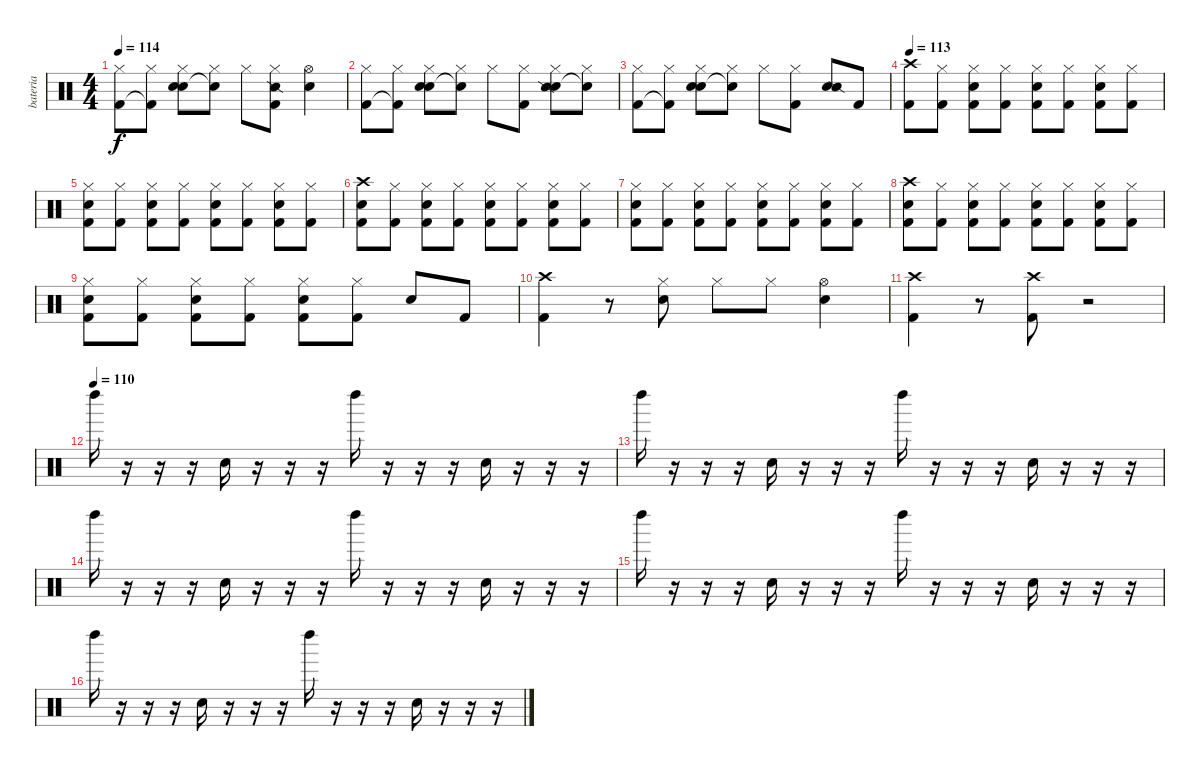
\track ("bateria" "bateria") {instrument percussion}
\staff {score}
\articulation defaults
\ts (4 4)
\tempo 114
\clef neutral
\ks c
("Hi-Hat (closed)" "Kick (hit) 2").8{dy f} ("Hi-Hat (closed)" "Kick (hit) 2"{t}).8 ("Hi-Hat (closed)" "Snare (hit) 2" "Hand Clap (hit)").8 ("Hi-Hat (closed)" "Snare (hit) 2"{t}).8 "Hi-Hat (closed)".8 ("Hi-Hat (closed)" "Kick (hit) 2" "Snare (side stick) 2").8 ("Hi-Hat (open)" "Snare (hit) 2").4 |
("Hi-Hat (closed)" "Kick (hit) 2").8 ("Hi-Hat (closed)" "Kick (hit) 2"{t}).8 ("Hi-Hat (closed)" "Snare (hit) 2" "Hand Clap (hit)").8 ("Hi-Hat (closed)" "Snare (hit) 2"{t}).8 "Hi-Hat (closed)".8 ("Hi-Hat (closed)" "Kick (hit) 2").8 ("Hi-Hat (closed)" "Snare (hit) 2" "Snare (side stick) 2").8 ("Hi-Hat (closed)" "Snare (hit) 2"{t}).8 |
("Hi-Hat (closed)" "Kick (hit) 2").8 ("Hi-Hat (closed)" "Kick (hit) 2"{t}).8 ("Hi-Hat (closed)" "Snare (hit) 2" "Hand Clap (hit)").8 ("Hi-Hat (closed)" "Snare (hit) 2"{t}).8 "Hi-Hat (closed)".8 ("Hi-Hat (closed)" "Kick (hit) 2").8 ("Snare (hit) 2" "Snare (side stick) 2").8 "Kick (hit) 2".8 |
\tempo 113
("Crash high (hit)" "Kick (hit) 2").8 ("Hi-Hat (closed)" "Kick (hit) 2").8 ("Hi-Hat (closed)" "Snare (hit) 2" "Kick (hit) 2").8 ("Hi-Hat (closed)" "Kick (hit) 2").8 ("Hi-Hat (closed)" "Snare (hit) 2" "Kick (hit) 2").8 ("Hi-Hat (closed)" "Kick (hit) 2").8 ("Hi-Hat (closed)" "Snare (hit) 2" "Kick (hit) 2").8 ("Hi-Hat (closed)" "Kick (hit) 2").8 |
("Hi-Hat (closed)" "Snare (hit) 2" "Kick (hit) 2").8 ("Hi-Hat (closed)" "Kick (hit) 2").8 ("Hi-Hat (closed)" "Snare (hit) 2" "Kick (hit) 2").8 ("Hi-Hat (closed)" "Kick (hit) 2").8 ("Hi-Hat (closed)" "Snare (hit) 2" "Kick (hit) 2").8 ("Hi-Hat (closed)" "Kick (hit) 2").8 ("Hi-Hat (closed)" "Snare (hit) 2" "Kick (hit) 2").8 ("Hi-Hat (closed)" "Kick (hit) 2").8 |
("Crash high (hit)" "Snare (hit) 2" "Kick (hit) 2").8 ("Hi-Hat (closed)" "Kick (hit) 2").8 ("Hi-Hat (closed)" "Snare (hit) 2" "Kick (hit) 2").8 ("Hi-Hat (closed)" "Kick (hit) 2").8 ("Hi-Hat (closed)" "Snare (hit) 2" "Kick (hit) 2").8 ("Hi-Hat (closed)" "Kick (hit) 2").8 ("Hi-Hat (closed)" "Snare (hit) 2" "Kick (hit) 2").8 ("Hi-Hat (closed)" "Kick (hit) 2").8 |
("Hi-Hat (closed)" "Snare (hit) 2" "Kick (hit) 2").8 ("Hi-Hat (closed)" "Kick (hit) 2").8 ("Hi-Hat (closed)" "Snare (hit) 2" "Kick (hit) 2").8 ("Hi-Hat (closed)" "Kick (hit) 2").8 ("Hi-Hat (closed)" "Snare (hit) 2" "Kick (hit) 2").8 ("Hi-Hat (closed)" "Kick (hit) 2").8 ("Hi-Hat (closed)" "Snare (hit) 2" "Kick (hit) 2").8 ("Hi-Hat (closed)" "Kick (hit) 2").8 |
("Crash high (hit)" "Snare (hit) 2" "Kick (hit) 2").8 ("Hi-Hat (closed)" "Kick (hit) 2").8 ("Hi-Hat (closed)" "Snare (hit) 2" "Kick (hit) 2").8 ("Hi-Hat (closed)" "Kick (hit) 2").8 ("Hi-Hat (closed)" "Snare (hit) 2" "Kick (hit) 2").8 ("Hi-Hat (closed)" "Kick (hit) 2").8 ("Hi-Hat (closed)" "Snare (hit) 2" "Kick (hit) 2").8 ("Hi-Hat (closed)" "Kick (hit) 2").8 |
("Hi-Hat (closed)" "Snare (hit) 2" "Kick (hit) 2").8 ("Hi-Hat (closed)" "Kick (hit) 2").8 ("Hi-Hat (closed)" "Snare (hit) 2" "Kick (hit) 2").8 ("Hi-Hat (closed)" "Kick (hit) 2").8 ("Hi-Hat (closed)" "Snare (hit) 2" "Kick (hit) 2").8 ("Hi-Hat (closed)" "Kick (hit) 2").8 "Snare (hit) 2".8 "Kick (hit) 2".8 |
("Crash high (hit)" "Kick (hit) 2").4 r.8 ("Hi-Hat (closed)" "Snare (hit) 2").8 "Hi-Hat (closed)".8 "Hi-Hat (closed)".8 ("Hi-Hat (open)" "Snare (hit) 2").4 |
("Crash high (hit)" "Kick (hit) 2").4 r.8 ("Crash high (hit)" "Kick (hit) 2").8 r.2 |
\tempo (110)
"Left Maraca (hit)".16 r.16 r.16 r.16 "Hand Clap (hit)".16 r.16 r.16 r.16 "Left Maraca (hit)".16 r.16 r.16 r.16 "Hand Clap (hit)".16 r.16 r.16 r.16 |
"Left Maraca (hit)".16 r.16 r.16 r.16 "Hand Clap (hit)".16 r.16 r.16 r.16 "Left Maraca (hit)".16 r.16 r.16 r.16 "Hand Clap (hit)".16 r.16 r.16 r.16 |
"Left Maraca (hit)".16 r.16 r.16 r.16 "Hand Clap (hit)".16 r.16 r.16 r.16 "Left Maraca (hit)".16 r.16 r.16 r.16 "Hand Clap (hit)".16 r.16 r.16 r.16 |
"Left Maraca (hit)".16 r.16 r.16 r.16 "Hand Clap (hit)".16 r.16 r.16 r.16 "Left Maraca (hit)".16 r.16 r.16 r.16 "Hand Clap (hit)".16 r.16 r.16 r.16 |
"Left Maraca (hit)".16 r.16 r.16 r.16 "Hand Clap (hit)".16 r.16 r.16 r.16 "Left Maraca (hit)".16 r.16 r.16 r.16 "Hand Clap (hit)".16 r.16 r.16 r.16
